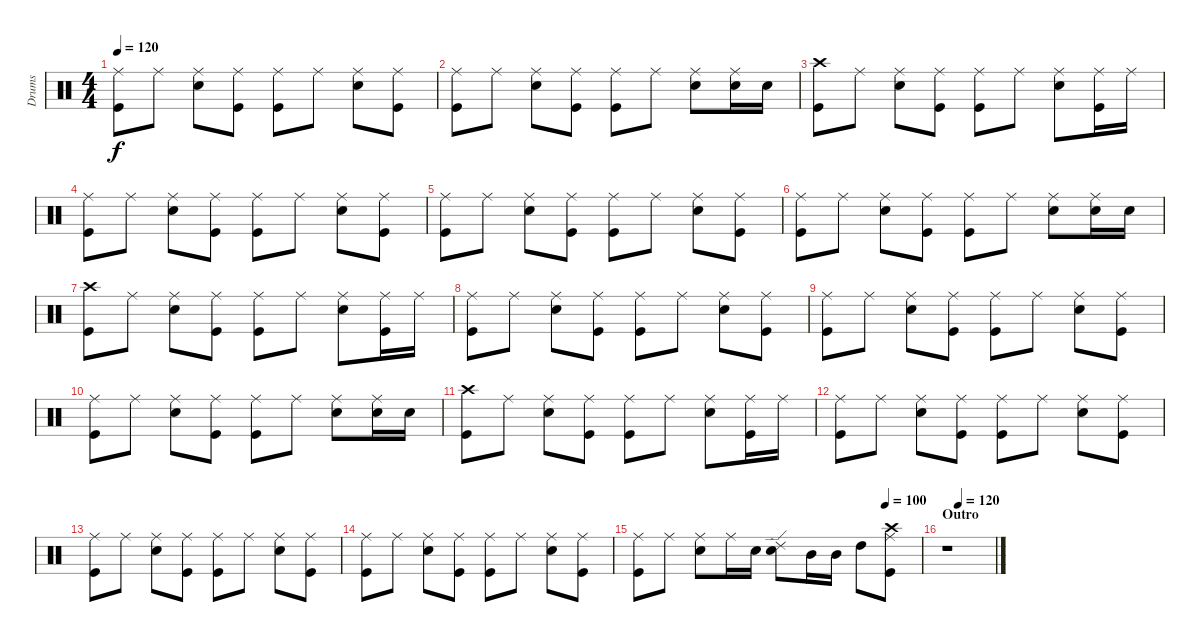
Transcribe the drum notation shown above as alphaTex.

\track ("Drums" "Drums") {instrument percussion}
\staff {score}
\articulation defaults
\ts (4 4)
\tempo 120
\clef neutral
\ks c
("Ride (middle)" "Kick (hit)").8{dy f} "Ride (middle)".8 ("Ride (middle)" "Snare (hit) 2").8 ("Ride (middle)" "Kick (hit)").8 ("Ride (middle)" "Kick (hit)").8 "Ride (middle)".8 ("Ride (middle)" "Snare (hit) 2").8 ("Ride (middle)" "Kick (hit)").8 |
("Ride (middle)" "Kick (hit)").8 "Ride (middle)".8 ("Ride (middle)" "Snare (hit) 2").8 ("Ride (middle)" "Kick (hit)").8 ("Ride (middle)" "Kick (hit)").8 "Ride (middle)".8 ("Ride (middle)" "Snare (hit) 2").8 ("Ride (middle)" "Snare (hit) 2").16 "Snare (hit) 2".16 |
("Crash high (hit)" "Kick (hit)").8 "Ride (middle)".8 ("Ride (middle)" "Snare (hit) 2").8 ("Ride (middle)" "Kick (hit)").8 ("Ride (middle)" "Kick (hit)").8 "Ride (middle)".8 ("Ride (middle)" "Snare (hit) 2").8 ("Ride (middle)" "Kick (hit)").16 "Ride (middle)".16 |
("Ride (middle)" "Kick (hit)").8 "Ride (middle)".8 ("Ride (middle)" "Snare (hit) 2").8 ("Ride (middle)" "Kick (hit)").8 ("Ride (middle)" "Kick (hit)").8 "Ride (middle)".8 ("Ride (middle)" "Snare (hit) 2").8 ("Ride (middle)" "Kick (hit)").8 |
("Ride (middle)" "Kick (hit)").8 "Ride (middle)".8 ("Ride (middle)" "Snare (hit) 2").8 ("Ride (middle)" "Kick (hit)").8 ("Ride (middle)" "Kick (hit)").8 "Ride (middle)".8 ("Ride (middle)" "Snare (hit) 2").8 ("Ride (middle)" "Kick (hit)").8 |
("Ride (middle)" "Kick (hit)").8 "Ride (middle)".8 ("Ride (middle)" "Snare (hit) 2").8 ("Ride (middle)" "Kick (hit)").8 ("Ride (middle)" "Kick (hit)").8 "Ride (middle)".8 ("Ride (middle)" "Snare (hit) 2").8 ("Ride (middle)" "Snare (hit) 2").16 "Snare (hit) 2".16 |
("Crash high (hit)" "Kick (hit)").8 "Ride (middle)".8 ("Ride (middle)" "Snare (hit) 2").8 ("Ride (middle)" "Kick (hit)").8 ("Ride (middle)" "Kick (hit)").8 "Ride (middle)".8 ("Ride (middle)" "Snare (hit) 2").8 ("Ride (middle)" "Kick (hit)").16 "Ride (middle)".16 |
("Ride (middle)" "Kick (hit)").8 "Ride (middle)".8 ("Ride (middle)" "Snare (hit) 2").8 ("Ride (middle)" "Kick (hit)").8 ("Ride (middle)" "Kick (hit)").8 "Ride (middle)".8 ("Ride (middle)" "Snare (hit) 2").8 ("Ride (middle)" "Kick (hit)").8 |
("Ride (middle)" "Kick (hit)").8 "Ride (middle)".8 ("Ride (middle)" "Snare (hit) 2").8 ("Ride (middle)" "Kick (hit)").8 ("Ride (middle)" "Kick (hit)").8 "Ride (middle)".8 ("Ride (middle)" "Snare (hit) 2").8 ("Ride (middle)" "Kick (hit)").8 |
("Ride (middle)" "Kick (hit)").8 "Ride (middle)".8 ("Ride (middle)" "Snare (hit) 2").8 ("Ride (middle)" "Kick (hit)").8 ("Ride (middle)" "Kick (hit)").8 "Ride (middle)".8 ("Ride (middle)" "Snare (hit) 2").8 ("Ride (middle)" "Snare (hit) 2").16 "Snare (hit) 2".16 |
("Crash high (hit)" "Kick (hit)").8 "Ride (middle)".8 ("Ride (middle)" "Snare (hit) 2").8 ("Ride (middle)" "Kick (hit)").8 ("Ride (middle)" "Kick (hit)").8 "Ride (middle)".8 ("Ride (middle)" "Snare (hit) 2").8 ("Ride (middle)" "Kick (hit)").16 "Ride (middle)".16 |
("Ride (middle)" "Kick (hit)").8 "Ride (middle)".8 ("Ride (middle)" "Snare (hit) 2").8 ("Ride (middle)" "Kick (hit)").8 ("Ride (middle)" "Kick (hit)").8 "Ride (middle)".8 ("Ride (middle)" "Snare (hit) 2").8 ("Ride (middle)" "Kick (hit)").8 |
("Ride (middle)" "Kick (hit)").8 "Ride (middle)".8 ("Ride (middle)" "Snare (hit) 2").8 ("Ride (middle)" "Kick (hit)").8 ("Ride (middle)" "Kick (hit)").8 "Ride (middle)".8 ("Ride (middle)" "Snare (hit) 2").8 ("Ride (middle)" "Kick (hit)").8 |
("Ride (middle)" "Kick (hit)").8 "Ride (middle)".8 ("Ride (middle)" "Snare (hit) 2").8 ("Ride (middle)" "Kick (hit)").8 ("Ride (middle)" "Kick (hit)").8 "Ride (middle)".8 ("Ride (middle)" "Snare (hit) 2").8 ("Ride (middle)" "Kick (hit)").8 |
\tempo (80 0.875)
\tempo (100 0.875)
("Ride (middle)" "Kick (hit)").8 "Ride (middle)".8 ("Ride (middle)" "Snare (hit) 2").8 "Ride (middle)".16 "Snare (hit) 2".16 ("Ride (edge) 2" "Snare (hit) 2").8 "Mid Tom (hit)".16 "Mid Tom (hit)".16 "High Tom (hit)".8 ("Crash high (hit)" "Ride (middle)" "Kick (hit)").8 |
\section ("" "Outro")
\tempo (120 0.25)
r.1
